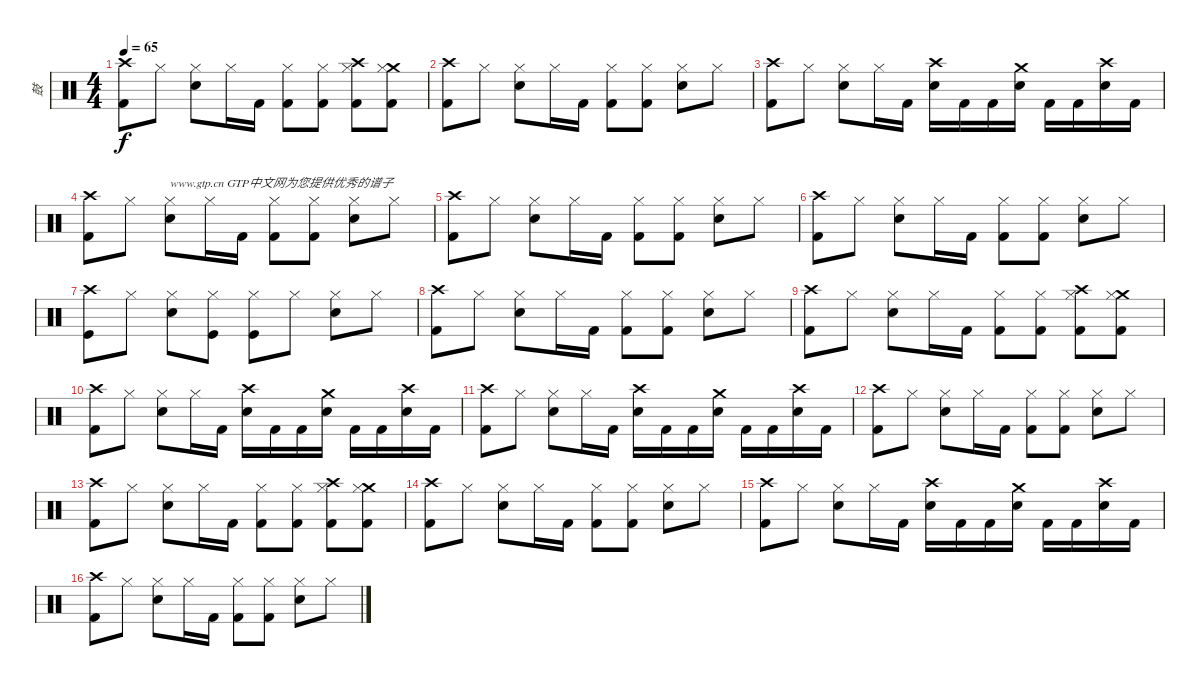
\track ("鼓" "鼓") {instrument percussion}
\staff {score}
\articulation defaults
\ts (4 4)
\tempo 65
\clef neutral
\ks c
("Crash high (hit)" "Kick (hit) 2").8{dy f} "Hi-Hat (closed)".8 ("Hi-Hat (closed)" "Snare (hit) 2").8 "Hi-Hat (closed)".16 "Kick (hit) 2".16 ("Hi-Hat (closed)" "Kick (hit) 2").8 ("Hi-Hat (closed)" "Kick (hit) 2").8 ("Crash high (hit)" "Hi-Hat (closed)" "Kick (hit) 2").8 ("Crash medium (hit)" "Hi-Hat (closed)" "Kick (hit) 2").8 |
("Crash high (hit)" "Kick (hit) 2").8 "Hi-Hat (closed)".8 ("Hi-Hat (closed)" "Snare (hit) 2").8 "Hi-Hat (closed)".16 "Kick (hit) 2".16 ("Hi-Hat (closed)" "Kick (hit) 2").8 ("Hi-Hat (closed)" "Kick (hit) 2").8 ("Hi-Hat (closed)" "Snare (hit) 2").8 "Hi-Hat (closed)".8 |
("Crash high (hit)" "Kick (hit) 2").8 "Hi-Hat (closed)".8 ("Hi-Hat (closed)" "Snare (hit) 2").8 "Hi-Hat (closed)".16 "Kick (hit) 2".16 ("Crash high (hit)" "Snare (hit) 2").16 "Kick (hit) 2".16 "Kick (hit) 2".16 ("Crash medium (hit)" "Snare (hit) 2").16 "Kick (hit) 2".16 "Kick (hit) 2".16 ("Crash high (hit)" "Snare (hit) 2").16 "Kick (hit) 2".16 |
("Crash high (hit)" "Kick (hit) 2").8 "Hi-Hat (closed)".8 ("Hi-Hat (closed)" "Snare (hit) 2").8{txt "www.gtp.cn GTP中文网为您提供优秀的谱子"} "Hi-Hat (closed)".16 "Kick (hit) 2".16 ("Hi-Hat (closed)" "Kick (hit) 2").8 ("Hi-Hat (closed)" "Kick (hit) 2").8 ("Hi-Hat (closed)" "Snare (hit) 2").8 "Hi-Hat (closed)".8 |
("Crash high (hit)" "Kick (hit) 2").8 "Hi-Hat (closed)".8 ("Hi-Hat (closed)" "Snare (hit) 2").8 "Hi-Hat (closed)".16 "Kick (hit) 2".16 ("Hi-Hat (closed)" "Kick (hit) 2").8 ("Hi-Hat (closed)" "Kick (hit) 2").8 ("Hi-Hat (closed)" "Snare (hit) 2").8 "Hi-Hat (closed)".8 |
("Crash high (hit)" "Kick (hit) 2").8 "Hi-Hat (closed)".8 ("Hi-Hat (closed)" "Snare (hit) 2").8 "Hi-Hat (closed)".16 "Kick (hit) 2".16 ("Hi-Hat (closed)" "Kick (hit) 2").8 ("Hi-Hat (closed)" "Kick (hit) 2").8 ("Hi-Hat (closed)" "Snare (hit) 2").8 "Hi-Hat (closed)".8 |
("Crash high (hit)" "Kick (hit)").8 "Hi-Hat (closed)".8 ("Hi-Hat (closed)" "Electric Snare (hit)").8 ("Hi-Hat (closed)" "Kick (hit)").8 ("Hi-Hat (closed)" "Kick (hit)").8 "Hi-Hat (closed)".8 ("Hi-Hat (closed)" "Electric Snare (hit)").8 "Hi-Hat (closed)".8 |
("Crash high (hit)" "Kick (hit) 2").8 "Hi-Hat (closed)".8 ("Hi-Hat (closed)" "Snare (hit) 2").8 "Hi-Hat (closed)".16 "Kick (hit) 2".16 ("Hi-Hat (closed)" "Kick (hit) 2").8 ("Hi-Hat (closed)" "Kick (hit) 2").8 ("Hi-Hat (closed)" "Snare (hit) 2").8 "Hi-Hat (closed)".8 |
("Crash high (hit)" "Kick (hit) 2").8 "Hi-Hat (closed)".8 ("Hi-Hat (closed)" "Snare (hit) 2").8 "Hi-Hat (closed)".16 "Kick (hit) 2".16 ("Hi-Hat (closed)" "Kick (hit) 2").8 ("Hi-Hat (closed)" "Kick (hit) 2").8 ("Crash high (hit)" "Hi-Hat (closed)" "Kick (hit) 2").8 ("Crash medium (hit)" "Hi-Hat (closed)" "Kick (hit) 2").8 |
("Crash high (hit)" "Kick (hit) 2").8 "Hi-Hat (closed)".8 ("Hi-Hat (closed)" "Snare (hit) 2").8 "Hi-Hat (closed)".16 "Kick (hit) 2".16 ("Crash high (hit)" "Snare (hit) 2").16 "Kick (hit) 2".16 "Kick (hit) 2".16 ("Crash medium (hit)" "Snare (hit) 2").16 "Kick (hit) 2".16 "Kick (hit) 2".16 ("Crash high (hit)" "Snare (hit) 2").16 "Kick (hit) 2".16 |
("Crash high (hit)" "Kick (hit) 2").8 "Hi-Hat (closed)".8 ("Hi-Hat (closed)" "Snare (hit) 2").8 "Hi-Hat (closed)".16 "Kick (hit) 2".16 ("Crash high (hit)" "Snare (hit) 2").16 "Kick (hit) 2".16 "Kick (hit) 2".16 ("Crash medium (hit)" "Snare (hit) 2").16 "Kick (hit) 2".16 "Kick (hit) 2".16 ("Crash high (hit)" "Snare (hit) 2").16 "Kick (hit) 2".16 |
("Crash high (hit)" "Kick (hit) 2").8 "Hi-Hat (closed)".8 ("Hi-Hat (closed)" "Snare (hit) 2").8 "Hi-Hat (closed)".16 "Kick (hit) 2".16 ("Hi-Hat (closed)" "Kick (hit) 2").8 ("Hi-Hat (closed)" "Kick (hit) 2").8 ("Hi-Hat (closed)" "Snare (hit) 2").8 "Hi-Hat (closed)".8 |
("Crash high (hit)" "Kick (hit) 2").8 "Hi-Hat (closed)".8 ("Hi-Hat (closed)" "Snare (hit) 2").8 "Hi-Hat (closed)".16 "Kick (hit) 2".16 ("Hi-Hat (closed)" "Kick (hit) 2").8 ("Hi-Hat (closed)" "Kick (hit) 2").8 ("Crash high (hit)" "Hi-Hat (closed)" "Kick (hit) 2").8 ("Crash medium (hit)" "Hi-Hat (closed)" "Kick (hit) 2").8 |
("Crash high (hit)" "Kick (hit) 2").8 "Hi-Hat (closed)".8 ("Hi-Hat (closed)" "Snare (hit) 2").8 "Hi-Hat (closed)".16 "Kick (hit) 2".16 ("Hi-Hat (closed)" "Kick (hit) 2").8 ("Hi-Hat (closed)" "Kick (hit) 2").8 ("Hi-Hat (closed)" "Snare (hit) 2").8 "Hi-Hat (closed)".8 |
("Crash high (hit)" "Kick (hit) 2").8 "Hi-Hat (closed)".8 ("Hi-Hat (closed)" "Snare (hit) 2").8 "Hi-Hat (closed)".16 "Kick (hit) 2".16 ("Crash high (hit)" "Snare (hit) 2").16 "Kick (hit) 2".16 "Kick (hit) 2".16 ("Crash medium (hit)" "Snare (hit) 2").16 "Kick (hit) 2".16 "Kick (hit) 2".16 ("Crash high (hit)" "Snare (hit) 2").16 "Kick (hit) 2".16 |
("Crash high (hit)" "Kick (hit) 2").8 "Hi-Hat (closed)".8 ("Hi-Hat (closed)" "Snare (hit) 2").8 "Hi-Hat (closed)".16 "Kick (hit) 2".16 ("Hi-Hat (closed)" "Kick (hit) 2").8 ("Hi-Hat (closed)" "Kick (hit) 2").8 ("Hi-Hat (closed)" "Snare (hit) 2").8 "Hi-Hat (closed)".8
